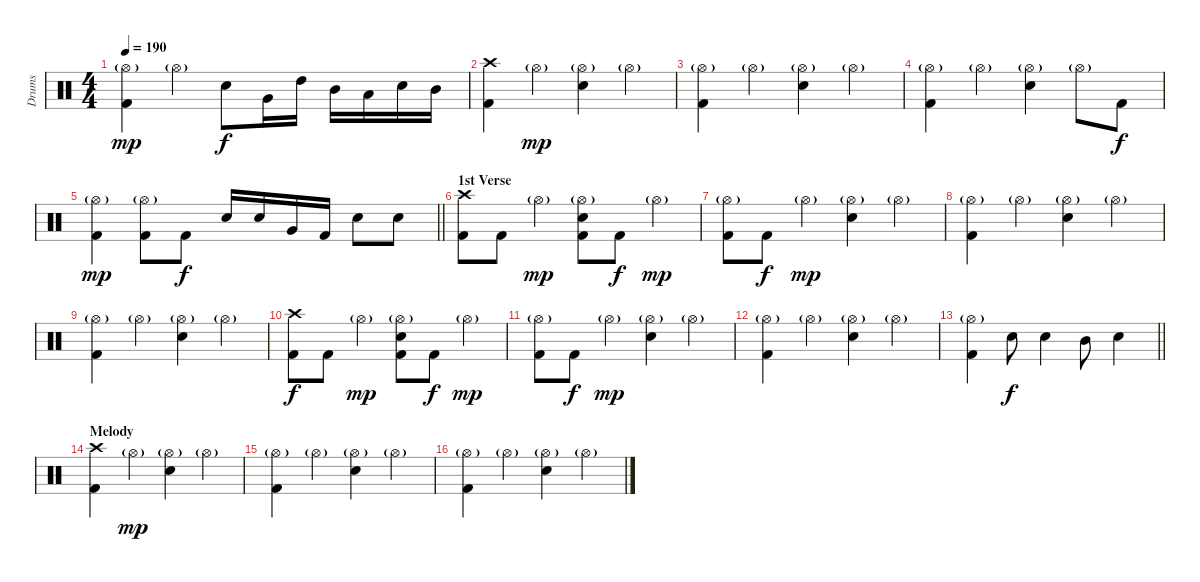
\track ("Drums" "Drums") {instrument percussion}
\staff {score}
\articulation defaults
\ts (4 4)
\tempo 190
\clef neutral
\ks c
("Hi-Hat (open)"{g} "Kick (hit) 2").4{dy mp} "Hi-Hat (open)"{g}.4 "Electric Snare (hit)".8{dy f} "Very Low Tom (hit)".16 "High Tom (hit)".16 "Mid Tom (hit)".16 "Low Tom (hit)".16 "Electric Snare (hit)".16 "Mid Tom (hit)".16 |
("Crash high (hit)" "Kick (hit) 2").4 "Hi-Hat (open)"{g}.4{dy mp} ("Hi-Hat (open)"{g} "Electric Snare (hit)").4 "Hi-Hat (open)"{g}.4 |
("Hi-Hat (open)"{g} "Kick (hit) 2").4 "Hi-Hat (open)"{g}.4 ("Hi-Hat (open)"{g} "Electric Snare (hit)").4 "Hi-Hat (open)"{g}.4 |
("Hi-Hat (open)"{g} "Kick (hit) 2").4 "Hi-Hat (open)"{g}.4 ("Hi-Hat (open)"{g} "Electric Snare (hit)").4 "Hi-Hat (open)"{g}.8 "Kick (hit) 2".8{dy f} |
\barLineRight lightlight
("Hi-Hat (open)"{g} "Kick (hit) 2").4{dy mp} ("Hi-Hat (open)"{g} "Kick (hit) 2").8 "Kick (hit) 2".8{dy f} "Electric Snare (hit)".16 "Electric Snare (hit)".16 "Very Low Tom (hit)".16 "Kick (hit) 2".16 "Electric Snare (hit)".8 "Electric Snare (hit)".8 |
\section ("" "1st Verse")
("Crash high (hit)" "Kick (hit) 2").8 "Kick (hit) 2".8 "Hi-Hat (open)"{g}.4{dy mp} ("Hi-Hat (open)"{g} "Electric Snare (hit)" "Kick (hit) 2").8 "Kick (hit) 2".8{dy f} "Hi-Hat (open)"{g}.4{dy mp} |
("Hi-Hat (open)"{g} "Kick (hit) 2").8 "Kick (hit) 2".8{dy f} "Hi-Hat (open)"{g}.4{dy mp} ("Hi-Hat (open)"{g} "Electric Snare (hit)").4 "Hi-Hat (open)"{g}.4 |
("Hi-Hat (open)"{g} "Kick (hit) 2").4 "Hi-Hat (open)"{g}.4 ("Hi-Hat (open)"{g} "Electric Snare (hit)").4 "Hi-Hat (open)"{g}.4 |
("Hi-Hat (open)"{g} "Kick (hit) 2").4 "Hi-Hat (open)"{g}.4 ("Hi-Hat (open)"{g} "Electric Snare (hit)").4 "Hi-Hat (open)"{g}.4 |
("Crash high (hit)" "Kick (hit) 2").8{dy f} "Kick (hit) 2".8 "Hi-Hat (open)"{g}.4{dy mp} ("Hi-Hat (open)"{g} "Electric Snare (hit)" "Kick (hit) 2").8 "Kick (hit) 2".8{dy f} "Hi-Hat (open)"{g}.4{dy mp} |
("Hi-Hat (open)"{g} "Kick (hit) 2").8 "Kick (hit) 2".8{dy f} "Hi-Hat (open)"{g}.4{dy mp} ("Hi-Hat (open)"{g} "Electric Snare (hit)").4 "Hi-Hat (open)"{g}.4 |
("Hi-Hat (open)"{g} "Kick (hit) 2").4 "Hi-Hat (open)"{g}.4 ("Hi-Hat (open)"{g} "Electric Snare (hit)").4 "Hi-Hat (open)"{g}.4 |
\barLineRight lightlight
("Hi-Hat (open)"{g} "Kick (hit) 2").4 "Electric Snare (hit)".8{dy f} "Electric Snare (hit)".4 "Mid Tom (hit)".8 "Electric Snare (hit)".4 |
\section ("" "Melody")
("Crash high (hit)" "Kick (hit) 2").4 "Hi-Hat (open)"{g}.4{dy mp} ("Hi-Hat (open)"{g} "Electric Snare (hit)").4 "Hi-Hat (open)"{g}.4 |
("Hi-Hat (open)"{g} "Kick (hit) 2").4 "Hi-Hat (open)"{g}.4 ("Hi-Hat (open)"{g} "Electric Snare (hit)").4 "Hi-Hat (open)"{g}.4 |
("Hi-Hat (open)"{g} "Kick (hit) 2").4 "Hi-Hat (open)"{g}.4 ("Hi-Hat (open)"{g} "Electric Snare (hit)").4 "Hi-Hat (open)"{g}.4
